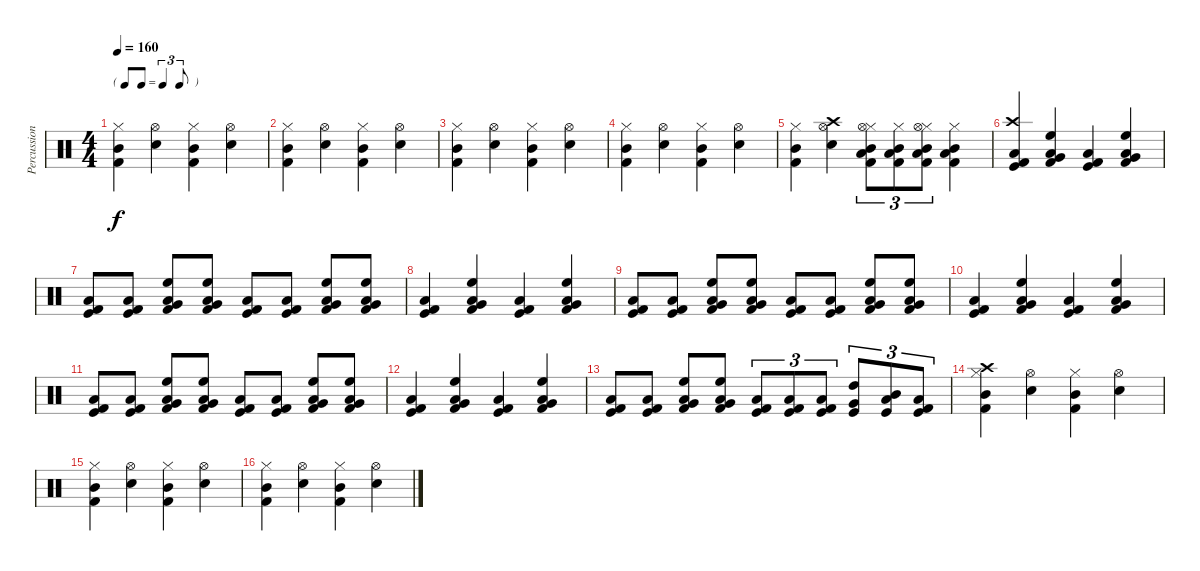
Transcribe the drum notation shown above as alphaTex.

\track ("Percussion" "Percussion") {instrument percussion}
\staff {score}
\articulation defaults
\ts (4 4)
\tf triplet8th
\tempo 160
\clef neutral
\ks c
("Hi-Hat (closed)" "Kick (hit) 2" "Mid Tom (hit)").4{dy f} ("Hi-Hat (open)" "Electric Snare (hit)").4 ("Hi-Hat (closed)" "Kick (hit) 2" "Mid Tom (hit)").4 ("Hi-Hat (open)" "Electric Snare (hit)").4 |
("Hi-Hat (closed)" "Kick (hit) 2" "Mid Tom (hit)").4 ("Hi-Hat (open)" "Electric Snare (hit)").4 ("Hi-Hat (closed)" "Kick (hit) 2" "Mid Tom (hit)").4 ("Hi-Hat (open)" "Electric Snare (hit)").4 |
("Hi-Hat (closed)" "Kick (hit) 2" "Mid Tom (hit)").4 ("Hi-Hat (open)" "Electric Snare (hit)").4 ("Hi-Hat (closed)" "Kick (hit) 2" "Mid Tom (hit)").4 ("Hi-Hat (open)" "Electric Snare (hit)").4 |
("Hi-Hat (closed)" "Kick (hit) 2" "Mid Tom (hit)").4 ("Hi-Hat (open)" "Electric Snare (hit)").4 ("Hi-Hat (closed)" "Kick (hit) 2" "Mid Tom (hit)").4 ("Hi-Hat (open)" "Electric Snare (hit)").4 |
("Hi-Hat (closed)" "Kick (hit) 2" "Mid Tom (hit)").4 ("Hi-Hat (open)" "Electric Snare (hit)" "Crash high (hit)").4 ("Hi-Hat (closed)" "Kick (hit) 2" "Mid Tom (hit)" "Low Floor Tom (hit)" "Hi-Hat (open)").8{tu (3 2)} ("Hi-Hat (closed)" "Kick (hit) 2" "Mid Tom (hit)" "Low Floor Tom (hit)").8{tu (3 2)} ("Hi-Hat (closed)" "Kick (hit) 2" "Mid Tom (hit)" "Low Floor Tom (hit)" "Hi-Hat (open)").8{tu (3 2)} ("Hi-Hat (closed)" "Kick (hit) 2" "Mid Tom (hit)" "Low Floor Tom (hit)").4 |
("Crash high (hit)" "Kick (hit)" "Kick (hit) 2" "Low Floor Tom (hit)").4 ("High Floor Tom (hit)" "Very Low Tom (hit)" "Kick (hit) 2" "Low Floor Tom (hit)").4 ("Kick (hit)" "Kick (hit) 2" "Low Floor Tom (hit)").4 ("High Floor Tom (hit)" "Very Low Tom (hit)" "Kick (hit) 2" "Low Floor Tom (hit)").4 |
("Kick (hit)" "Kick (hit) 2" "Low Floor Tom (hit)").8 ("Kick (hit)" "Kick (hit) 2" "Low Floor Tom (hit)").8 ("High Floor Tom (hit)" "Very Low Tom (hit)" "Kick (hit) 2" "Low Floor Tom (hit)").8 ("High Floor Tom (hit)" "Very Low Tom (hit)" "Kick (hit) 2" "Low Floor Tom (hit)").8 ("Kick (hit)" "Kick (hit) 2" "Low Floor Tom (hit)").8 ("Kick (hit)" "Kick (hit) 2" "Low Floor Tom (hit)").8 ("High Floor Tom (hit)" "Very Low Tom (hit)" "Kick (hit) 2" "Low Floor Tom (hit)").8 ("High Floor Tom (hit)" "Very Low Tom (hit)" "Kick (hit) 2" "Low Floor Tom (hit)").8 |
("Kick (hit)" "Kick (hit) 2" "Low Floor Tom (hit)").4 ("High Floor Tom (hit)" "Very Low Tom (hit)" "Kick (hit) 2" "Low Floor Tom (hit)").4 ("Kick (hit)" "Kick (hit) 2" "Low Floor Tom (hit)").4 ("High Floor Tom (hit)" "Very Low Tom (hit)" "Kick (hit) 2" "Low Floor Tom (hit)").4 |
("Kick (hit)" "Kick (hit) 2" "Low Floor Tom (hit)").8 ("Kick (hit)" "Kick (hit) 2" "Low Floor Tom (hit)").8 ("High Floor Tom (hit)" "Very Low Tom (hit)" "Kick (hit) 2" "Low Floor Tom (hit)").8 ("High Floor Tom (hit)" "Very Low Tom (hit)" "Kick (hit) 2" "Low Floor Tom (hit)").8 ("Kick (hit)" "Kick (hit) 2" "Low Floor Tom (hit)").8 ("Kick (hit)" "Kick (hit) 2" "Low Floor Tom (hit)").8 ("High Floor Tom (hit)" "Very Low Tom (hit)" "Kick (hit) 2" "Low Floor Tom (hit)").8 ("High Floor Tom (hit)" "Very Low Tom (hit)" "Kick (hit) 2" "Low Floor Tom (hit)").8 |
("Kick (hit)" "Kick (hit) 2" "Low Floor Tom (hit)").4 ("High Floor Tom (hit)" "Very Low Tom (hit)" "Kick (hit) 2" "Low Floor Tom (hit)").4 ("Kick (hit)" "Kick (hit) 2" "Low Floor Tom (hit)").4 ("High Floor Tom (hit)" "Very Low Tom (hit)" "Kick (hit) 2" "Low Floor Tom (hit)").4 |
("Kick (hit)" "Kick (hit) 2" "Low Floor Tom (hit)").8 ("Kick (hit)" "Kick (hit) 2" "Low Floor Tom (hit)").8 ("High Floor Tom (hit)" "Very Low Tom (hit)" "Kick (hit) 2" "Low Floor Tom (hit)").8 ("High Floor Tom (hit)" "Very Low Tom (hit)" "Kick (hit) 2" "Low Floor Tom (hit)").8 ("Kick (hit)" "Kick (hit) 2" "Low Floor Tom (hit)").8 ("Kick (hit)" "Kick (hit) 2" "Low Floor Tom (hit)").8 ("High Floor Tom (hit)" "Very Low Tom (hit)" "Kick (hit) 2" "Low Floor Tom (hit)").8 ("High Floor Tom (hit)" "Very Low Tom (hit)" "Kick (hit) 2" "Low Floor Tom (hit)").8 |
("Kick (hit)" "Kick (hit) 2" "Low Floor Tom (hit)").4 ("High Floor Tom (hit)" "Very Low Tom (hit)" "Kick (hit) 2" "Low Floor Tom (hit)").4 ("Kick (hit)" "Kick (hit) 2" "Low Floor Tom (hit)").4 ("High Floor Tom (hit)" "Very Low Tom (hit)" "Kick (hit) 2" "Low Floor Tom (hit)").4 |
("Kick (hit)" "Kick (hit) 2" "Low Floor Tom (hit)").8 ("Kick (hit)" "Kick (hit) 2" "Low Floor Tom (hit)").8 ("High Floor Tom (hit)" "Very Low Tom (hit)" "Kick (hit) 2" "Low Floor Tom (hit)").8 ("High Floor Tom (hit)" "Very Low Tom (hit)" "Kick (hit) 2" "Low Floor Tom (hit)").8 ("Kick (hit)" "Kick (hit) 2" "Low Floor Tom (hit)").8{tu (3 2)} ("Kick (hit)" "Kick (hit) 2" "Low Floor Tom (hit)").8{tu (3 2)} ("Kick (hit)" "Kick (hit) 2" "Low Floor Tom (hit)").8{tu (3 2)} ("Kick (hit)" "High Tom (hit)" "Very Low Tom (hit)").8{tu (3 2)} ("Kick (hit)" "Mid Tom (hit)" "Low Floor Tom (hit)").8{tu (3 2)} ("Kick (hit)" "Low Tom (hit)" "Kick (hit) 2").8{tu (3 2)} |
("Hi-Hat (closed)" "Kick (hit) 2" "Mid Tom (hit)" "Crash high (hit)").4 ("Hi-Hat (open)" "Electric Snare (hit)").4 ("Hi-Hat (closed)" "Kick (hit) 2" "Mid Tom (hit)").4 ("Hi-Hat (open)" "Electric Snare (hit)").4 |
("Hi-Hat (closed)" "Kick (hit) 2" "Mid Tom (hit)").4 ("Hi-Hat (open)" "Electric Snare (hit)").4 ("Hi-Hat (closed)" "Kick (hit) 2" "Mid Tom (hit)").4 ("Hi-Hat (open)" "Electric Snare (hit)").4 |
("Hi-Hat (closed)" "Kick (hit) 2" "Mid Tom (hit)").4 ("Hi-Hat (open)" "Electric Snare (hit)").4 ("Hi-Hat (closed)" "Kick (hit) 2" "Mid Tom (hit)").4 ("Hi-Hat (open)" "Electric Snare (hit)").4
